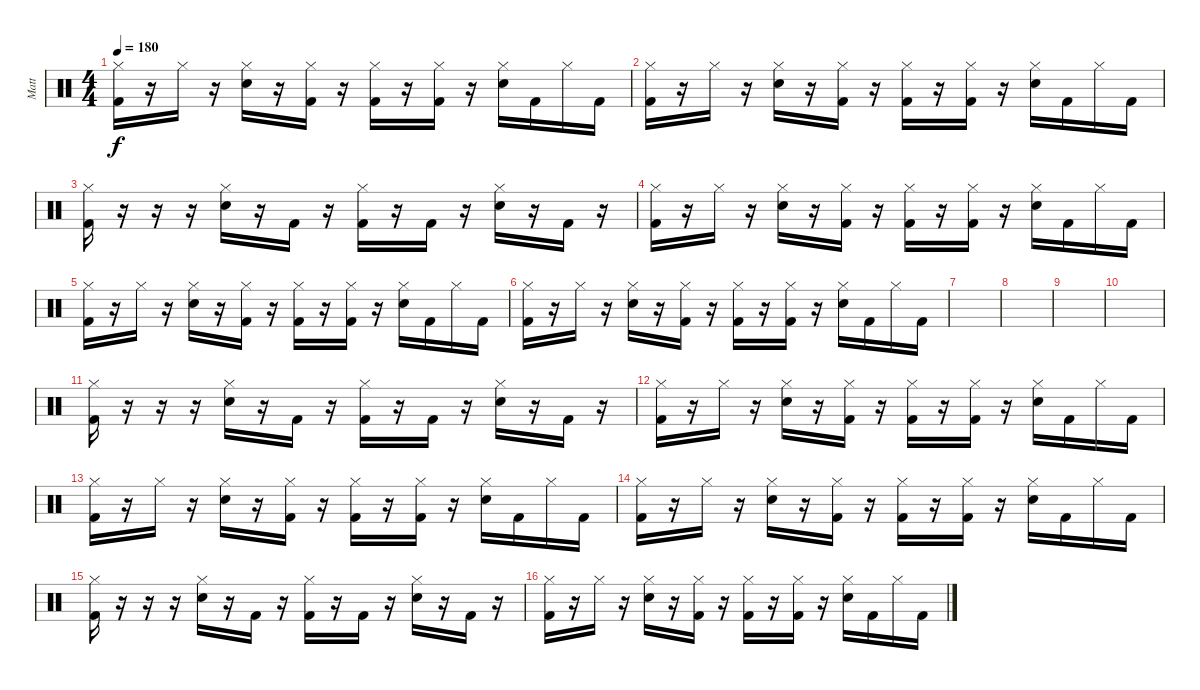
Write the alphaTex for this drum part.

\track ("Matt" "Matt") {instrument percussion}
\staff {score}
\articulation defaults
\ts (4 4)
\tempo 180
\clef neutral
\ks c
("Hi-Hat (closed)" "Kick (hit) 2").16{dy f} r.16 "Hi-Hat (closed)".16 r.16 ("Hi-Hat (closed)" "Snare (hit) 2").16 r.16 ("Hi-Hat (closed)" "Kick (hit) 2").16 r.16 ("Hi-Hat (closed)" "Kick (hit) 2").16 r.16 ("Hi-Hat (closed)" "Kick (hit) 2").16 r.16 ("Hi-Hat (closed)" "Snare (hit) 2").16 "Kick (hit) 2".16 "Hi-Hat (closed)".16 "Kick (hit) 2".16 |
("Hi-Hat (closed)" "Kick (hit) 2").16 r.16 "Hi-Hat (closed)".16 r.16 ("Hi-Hat (closed)" "Snare (hit) 2").16 r.16 ("Hi-Hat (closed)" "Kick (hit) 2").16 r.16 ("Hi-Hat (closed)" "Kick (hit) 2").16 r.16 ("Hi-Hat (closed)" "Kick (hit) 2").16 r.16 ("Hi-Hat (closed)" "Snare (hit) 2").16 "Kick (hit) 2".16 "Hi-Hat (closed)".16 "Kick (hit) 2".16 |
("Hi-Hat (closed)" "Kick (hit) 2").16 r.16 r.16 r.16 ("Hi-Hat (closed)" "Snare (hit) 2").16 r.16 "Kick (hit) 2".16 r.16 ("Hi-Hat (closed)" "Kick (hit) 2").16 r.16 "Kick (hit) 2".16 r.16 ("Hi-Hat (closed)" "Snare (hit) 2").16 r.16 "Kick (hit) 2".16 r.16 |
("Hi-Hat (closed)" "Kick (hit) 2").16 r.16 "Hi-Hat (closed)".16 r.16 ("Hi-Hat (closed)" "Snare (hit) 2").16 r.16 ("Hi-Hat (closed)" "Kick (hit) 2").16 r.16 ("Hi-Hat (closed)" "Kick (hit) 2").16 r.16 ("Hi-Hat (closed)" "Kick (hit) 2").16 r.16 ("Hi-Hat (closed)" "Snare (hit) 2").16 "Kick (hit) 2".16 "Hi-Hat (closed)".16 "Kick (hit) 2".16 |
("Hi-Hat (closed)" "Kick (hit) 2").16 r.16 "Hi-Hat (closed)".16 r.16 ("Hi-Hat (closed)" "Snare (hit) 2").16 r.16 ("Hi-Hat (closed)" "Kick (hit) 2").16 r.16 ("Hi-Hat (closed)" "Kick (hit) 2").16 r.16 ("Hi-Hat (closed)" "Kick (hit) 2").16 r.16 ("Hi-Hat (closed)" "Snare (hit) 2").16 "Kick (hit) 2".16 "Hi-Hat (closed)".16 "Kick (hit) 2".16 |
("Hi-Hat (closed)" "Kick (hit) 2").16 r.16 "Hi-Hat (closed)".16 r.16 ("Hi-Hat (closed)" "Snare (hit) 2").16 r.16 ("Hi-Hat (closed)" "Kick (hit) 2").16 r.16 ("Hi-Hat (closed)" "Kick (hit) 2").16 r.16 ("Hi-Hat (closed)" "Kick (hit) 2").16 r.16 ("Hi-Hat (closed)" "Snare (hit) 2").16 "Kick (hit) 2".16 "Hi-Hat (closed)".16 "Kick (hit) 2".16 |
|
|
|
|
("Hi-Hat (closed)" "Kick (hit) 2").16 r.16 r.16 r.16 ("Hi-Hat (closed)" "Snare (hit) 2").16 r.16 "Kick (hit) 2".16 r.16 ("Hi-Hat (closed)" "Kick (hit) 2").16 r.16 "Kick (hit) 2".16 r.16 ("Hi-Hat (closed)" "Snare (hit) 2").16 r.16 "Kick (hit) 2".16 r.16 |
("Hi-Hat (closed)" "Kick (hit) 2").16 r.16 "Hi-Hat (closed)".16 r.16 ("Hi-Hat (closed)" "Snare (hit) 2").16 r.16 ("Hi-Hat (closed)" "Kick (hit) 2").16 r.16 ("Hi-Hat (closed)" "Kick (hit) 2").16 r.16 ("Hi-Hat (closed)" "Kick (hit) 2").16 r.16 ("Hi-Hat (closed)" "Snare (hit) 2").16 "Kick (hit) 2".16 "Hi-Hat (closed)".16 "Kick (hit) 2".16 |
("Hi-Hat (closed)" "Kick (hit) 2").16 r.16 "Hi-Hat (closed)".16 r.16 ("Hi-Hat (closed)" "Snare (hit) 2").16 r.16 ("Hi-Hat (closed)" "Kick (hit) 2").16 r.16 ("Hi-Hat (closed)" "Kick (hit) 2").16 r.16 ("Hi-Hat (closed)" "Kick (hit) 2").16 r.16 ("Hi-Hat (closed)" "Snare (hit) 2").16 "Kick (hit) 2".16 "Hi-Hat (closed)".16 "Kick (hit) 2".16 |
("Hi-Hat (closed)" "Kick (hit) 2").16 r.16 "Hi-Hat (closed)".16 r.16 ("Hi-Hat (closed)" "Snare (hit) 2").16 r.16 ("Hi-Hat (closed)" "Kick (hit) 2").16 r.16 ("Hi-Hat (closed)" "Kick (hit) 2").16 r.16 ("Hi-Hat (closed)" "Kick (hit) 2").16 r.16 ("Hi-Hat (closed)" "Snare (hit) 2").16 "Kick (hit) 2".16 "Hi-Hat (closed)".16 "Kick (hit) 2".16 |
("Hi-Hat (closed)" "Kick (hit) 2").16 r.16 r.16 r.16 ("Hi-Hat (closed)" "Snare (hit) 2").16 r.16 "Kick (hit) 2".16 r.16 ("Hi-Hat (closed)" "Kick (hit) 2").16 r.16 "Kick (hit) 2".16 r.16 ("Hi-Hat (closed)" "Snare (hit) 2").16 r.16 "Kick (hit) 2".16 r.16 |
("Hi-Hat (closed)" "Kick (hit) 2").16 r.16 "Hi-Hat (closed)".16 r.16 ("Hi-Hat (closed)" "Snare (hit) 2").16 r.16 ("Hi-Hat (closed)" "Kick (hit) 2").16 r.16 ("Hi-Hat (closed)" "Kick (hit) 2").16 r.16 ("Hi-Hat (closed)" "Kick (hit) 2").16 r.16 ("Hi-Hat (closed)" "Snare (hit) 2").16 "Kick (hit) 2".16 "Hi-Hat (closed)".16 "Kick (hit) 2".16
